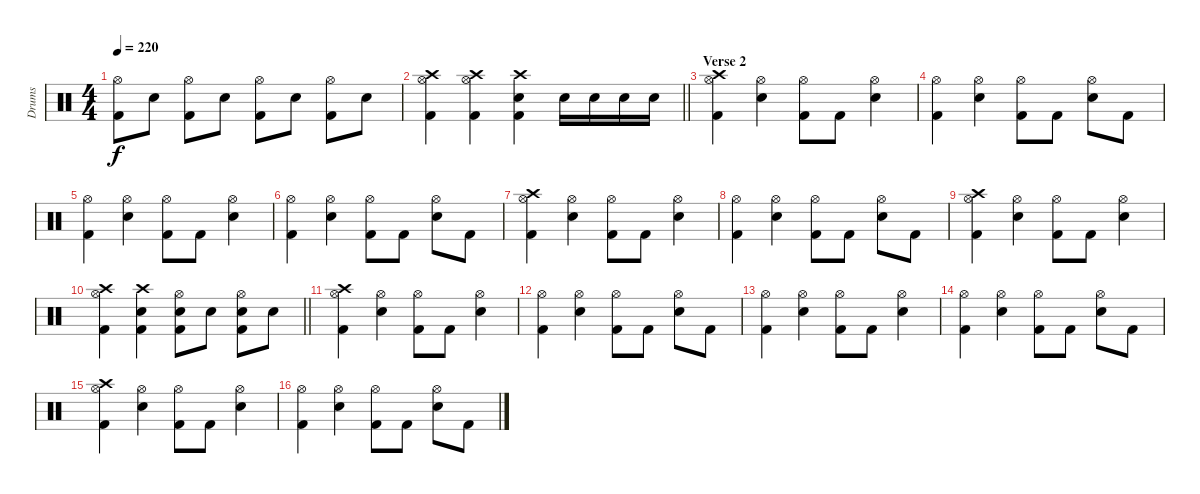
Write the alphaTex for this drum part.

\track ("Drums" "Drums") {instrument percussion}
\staff {score}
\articulation defaults
\ts (4 4)
\tempo 220
\clef neutral
\ks c
("Hi-Hat (open)" "Kick (hit) 2").8{dy f} "Snare (hit) 2".8 ("Hi-Hat (open)" "Kick (hit) 2").8 "Snare (hit) 2".8 ("Hi-Hat (open)" "Kick (hit) 2").8 "Snare (hit) 2".8 ("Hi-Hat (open)" "Kick (hit) 2").8 "Snare (hit) 2".8 |
\barLineRight lightlight
("Crash high (hit)" "Hi-Hat (open)" "Kick (hit) 2").4 ("Crash high (hit)" "Hi-Hat (open)" "Kick (hit) 2").4 ("Crash high (hit)" "Snare (hit) 2" "Kick (hit) 2").4 "Snare (hit) 2".16 "Snare (hit) 2".16 "Snare (hit) 2".16 "Snare (hit) 2".16 |
\section ("" "Verse 2")
("Crash high (hit)" "Hi-Hat (open)" "Kick (hit) 2").4 ("Hi-Hat (open)" "Snare (hit) 2").4 ("Hi-Hat (open)" "Kick (hit) 2").8 "Kick (hit) 2".8 ("Hi-Hat (open)" "Snare (hit) 2").4 |
("Hi-Hat (open)" "Kick (hit) 2").4 ("Hi-Hat (open)" "Snare (hit) 2").4 ("Hi-Hat (open)" "Kick (hit) 2").8 "Kick (hit) 2".8 ("Hi-Hat (open)" "Snare (hit) 2").8 "Kick (hit) 2".8 |
("Hi-Hat (open)" "Kick (hit) 2").4 ("Hi-Hat (open)" "Snare (hit) 2").4 ("Hi-Hat (open)" "Kick (hit) 2").8 "Kick (hit) 2".8 ("Hi-Hat (open)" "Snare (hit) 2").4 |
("Hi-Hat (open)" "Kick (hit) 2").4 ("Hi-Hat (open)" "Snare (hit) 2").4 ("Hi-Hat (open)" "Kick (hit) 2").8 "Kick (hit) 2".8 ("Hi-Hat (open)" "Snare (hit) 2").8 "Kick (hit) 2".8 |
("Crash high (hit)" "Hi-Hat (open)" "Kick (hit) 2").4 ("Hi-Hat (open)" "Snare (hit) 2").4 ("Hi-Hat (open)" "Kick (hit) 2").8 "Kick (hit) 2".8 ("Hi-Hat (open)" "Snare (hit) 2").4 |
("Hi-Hat (open)" "Kick (hit) 2").4 ("Hi-Hat (open)" "Snare (hit) 2").4 ("Hi-Hat (open)" "Kick (hit) 2").8 "Kick (hit) 2".8 ("Hi-Hat (open)" "Snare (hit) 2").8 "Kick (hit) 2".8 |
("Crash high (hit)" "Hi-Hat (open)" "Kick (hit) 2").4 ("Hi-Hat (open)" "Snare (hit) 2").4 ("Hi-Hat (open)" "Kick (hit) 2").8 "Kick (hit) 2".8 ("Hi-Hat (open)" "Snare (hit) 2").4 |
\barLineRight lightlight
("Crash high (hit)" "Hi-Hat (open)" "Kick (hit) 2").4 ("Crash high (hit)" "Snare (hit) 2" "Kick (hit) 2").4 ("Hi-Hat (open)" "Snare (hit) 2" "Kick (hit) 2").8 "Snare (hit) 2".8 ("Hi-Hat (open)" "Snare (hit) 2" "Kick (hit) 2").8 "Snare (hit) 2".8 |
("Crash high (hit)" "Hi-Hat (open)" "Kick (hit) 2").4 ("Hi-Hat (open)" "Snare (hit) 2").4 ("Hi-Hat (open)" "Kick (hit) 2").8 "Kick (hit) 2".8 ("Hi-Hat (open)" "Snare (hit) 2").4 |
("Hi-Hat (open)" "Kick (hit) 2").4 ("Hi-Hat (open)" "Snare (hit) 2").4 ("Hi-Hat (open)" "Kick (hit) 2").8 "Kick (hit) 2".8 ("Hi-Hat (open)" "Snare (hit) 2").8 "Kick (hit) 2".8 |
("Hi-Hat (open)" "Kick (hit) 2").4 ("Hi-Hat (open)" "Snare (hit) 2").4 ("Hi-Hat (open)" "Kick (hit) 2").8 "Kick (hit) 2".8 ("Hi-Hat (open)" "Snare (hit) 2").4 |
("Hi-Hat (open)" "Kick (hit) 2").4 ("Hi-Hat (open)" "Snare (hit) 2").4 ("Hi-Hat (open)" "Kick (hit) 2").8 "Kick (hit) 2".8 ("Hi-Hat (open)" "Snare (hit) 2").8 "Kick (hit) 2".8 |
("Crash high (hit)" "Hi-Hat (open)" "Kick (hit) 2").4 ("Hi-Hat (open)" "Snare (hit) 2").4 ("Hi-Hat (open)" "Kick (hit) 2").8 "Kick (hit) 2".8 ("Hi-Hat (open)" "Snare (hit) 2").4 |
("Hi-Hat (open)" "Kick (hit) 2").4 ("Hi-Hat (open)" "Snare (hit) 2").4 ("Hi-Hat (open)" "Kick (hit) 2").8 "Kick (hit) 2".8 ("Hi-Hat (open)" "Snare (hit) 2").8 "Kick (hit) 2".8
